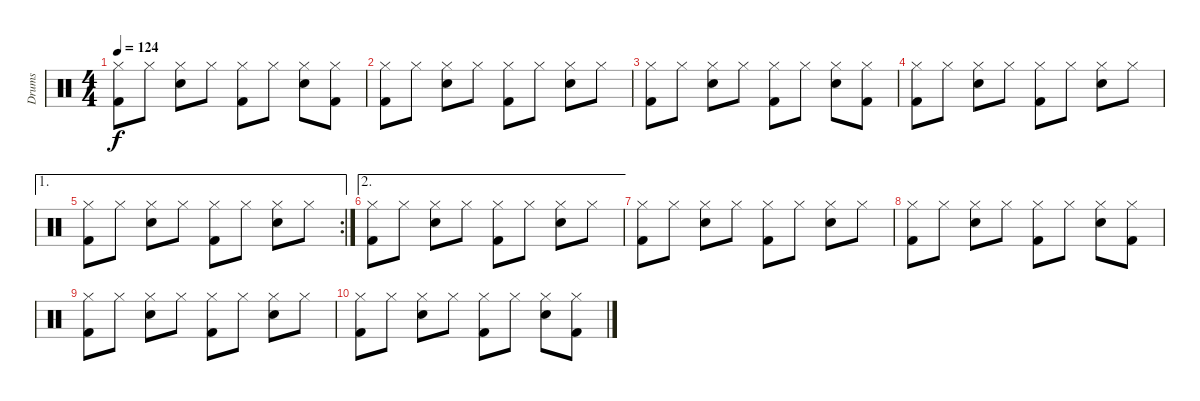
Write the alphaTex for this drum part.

\track ("Drums" "Drums") {instrument percussion}
\staff {score}
\articulation defaults
\ts (4 4)
\tempo 124
\clef neutral
\ks c
("Hi-Hat (closed)" "Kick (hit) 2").8{dy f} "Hi-Hat (closed)".8 ("Hi-Hat (closed)" "Snare (hit) 2").8 "Hi-Hat (closed)".8 ("Hi-Hat (closed)" "Kick (hit) 2").8 "Hi-Hat (closed)".8 ("Hi-Hat (closed)" "Snare (hit) 2").8 ("Hi-Hat (closed)" "Kick (hit) 2").8 |
("Hi-Hat (closed)" "Kick (hit) 2").8 "Hi-Hat (closed)".8 ("Hi-Hat (closed)" "Snare (hit) 2").8 "Hi-Hat (closed)".8 ("Hi-Hat (closed)" "Kick (hit) 2").8 "Hi-Hat (closed)".8 ("Hi-Hat (closed)" "Snare (hit) 2").8 "Hi-Hat (closed)".8 |
("Hi-Hat (closed)" "Kick (hit) 2").8 "Hi-Hat (closed)".8 ("Hi-Hat (closed)" "Snare (hit) 2").8 "Hi-Hat (closed)".8 ("Hi-Hat (closed)" "Kick (hit) 2").8 "Hi-Hat (closed)".8 ("Hi-Hat (closed)" "Snare (hit) 2").8 ("Hi-Hat (closed)" "Kick (hit) 2").8 |
("Hi-Hat (closed)" "Kick (hit) 2").8 "Hi-Hat (closed)".8 ("Hi-Hat (closed)" "Snare (hit) 2").8 "Hi-Hat (closed)".8 ("Hi-Hat (closed)" "Kick (hit) 2").8 "Hi-Hat (closed)".8 ("Hi-Hat (closed)" "Snare (hit) 2").8 "Hi-Hat (closed)".8 |
\ae 1
\rc 2
("Hi-Hat (closed)" "Kick (hit) 2").8 "Hi-Hat (closed)".8 ("Hi-Hat (closed)" "Snare (hit) 2").8 "Hi-Hat (closed)".8 ("Hi-Hat (closed)" "Kick (hit) 2").8 "Hi-Hat (closed)".8 ("Hi-Hat (closed)" "Snare (hit) 2").8 "Hi-Hat (closed)".8 |
\ae 2
("Hi-Hat (closed)" "Kick (hit) 2").8 "Hi-Hat (closed)".8 ("Hi-Hat (closed)" "Snare (hit) 2").8 "Hi-Hat (closed)".8 ("Hi-Hat (closed)" "Kick (hit) 2").8 "Hi-Hat (closed)".8 ("Hi-Hat (closed)" "Snare (hit) 2").8 "Hi-Hat (closed)".8 |
("Hi-Hat (closed)" "Kick (hit) 2").8 "Hi-Hat (closed)".8 ("Hi-Hat (closed)" "Snare (hit) 2").8 "Hi-Hat (closed)".8 ("Hi-Hat (closed)" "Kick (hit) 2").8 "Hi-Hat (closed)".8 ("Hi-Hat (closed)" "Snare (hit) 2").8 "Hi-Hat (closed)".8 |
("Hi-Hat (closed)" "Kick (hit) 2").8 "Hi-Hat (closed)".8 ("Hi-Hat (closed)" "Snare (hit) 2").8 "Hi-Hat (closed)".8 ("Hi-Hat (closed)" "Kick (hit) 2").8 "Hi-Hat (closed)".8 ("Hi-Hat (closed)" "Snare (hit) 2").8 ("Hi-Hat (closed)" "Kick (hit) 2").8 |
("Hi-Hat (closed)" "Kick (hit) 2").8{volume 8} "Hi-Hat (closed)".8 ("Hi-Hat (closed)" "Snare (hit) 2").8 "Hi-Hat (closed)".8 ("Hi-Hat (closed)" "Kick (hit) 2").8 "Hi-Hat (closed)".8 ("Hi-Hat (closed)" "Snare (hit) 2").8 "Hi-Hat (closed)".8 |
("Hi-Hat (closed)" "Kick (hit) 2").8 "Hi-Hat (closed)".8 ("Hi-Hat (closed)" "Snare (hit) 2").8 "Hi-Hat (closed)".8 ("Hi-Hat (closed)" "Kick (hit) 2").8 "Hi-Hat (closed)".8 ("Hi-Hat (closed)" "Snare (hit) 2").8 ("Hi-Hat (closed)" "Kick (hit) 2").8
